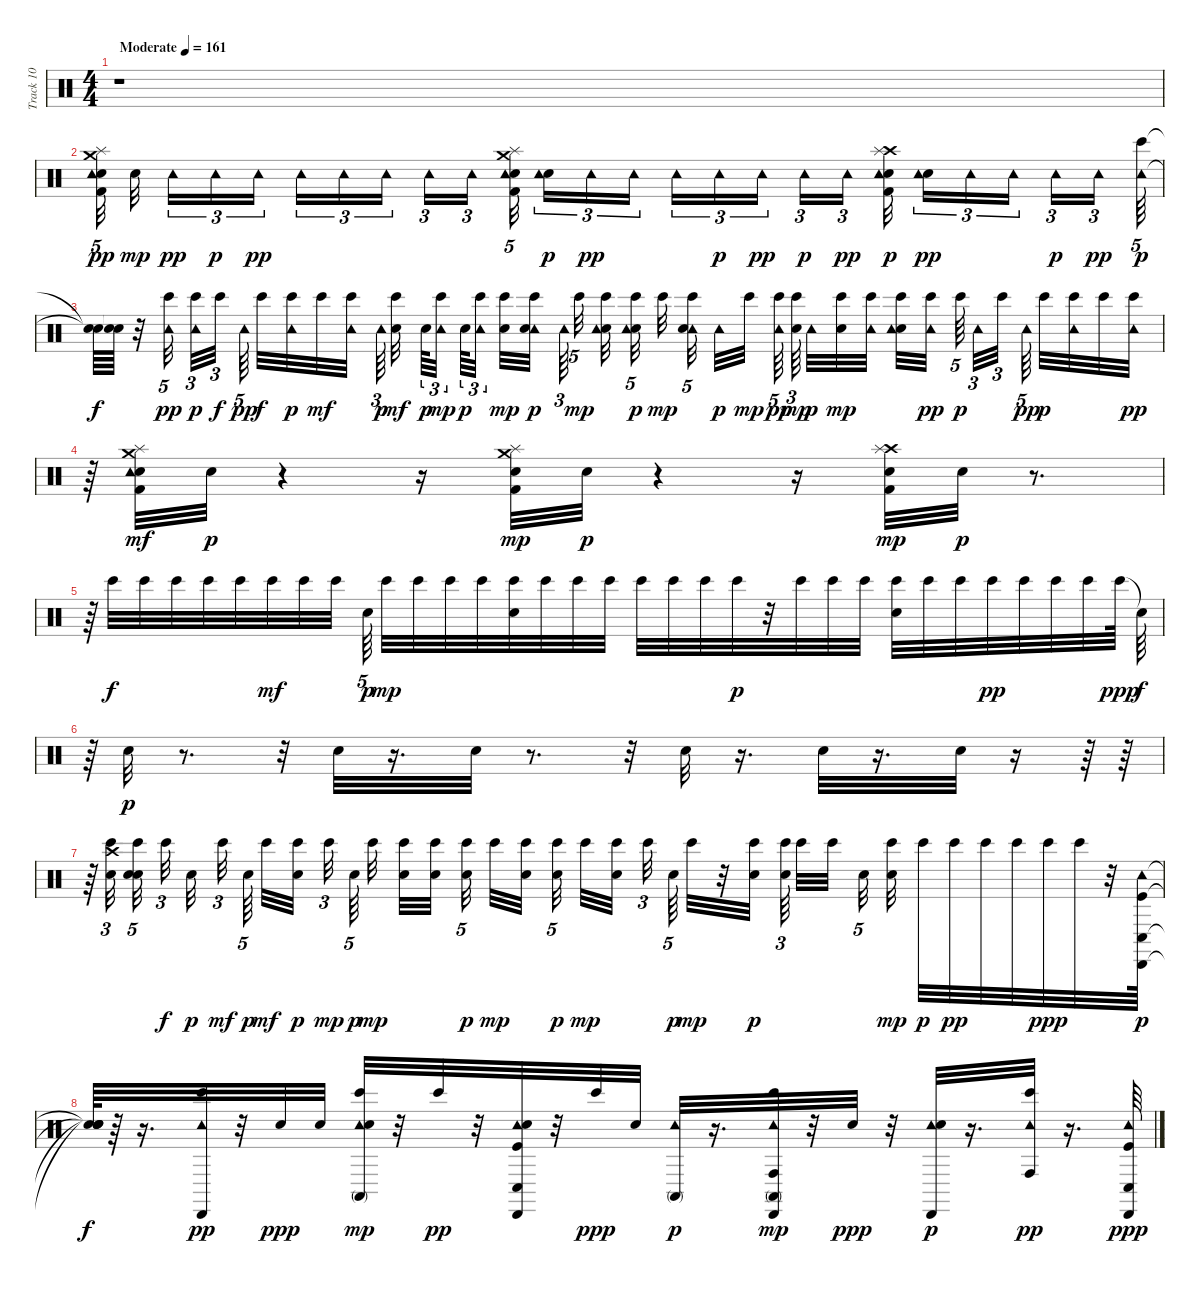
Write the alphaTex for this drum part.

\track ("Track 10" "Track 10") {instrument percussion}
\staff {score}
\articulation defaults
\ts (4 4)
\tempo (161 "Moderate")
\clef neutral
\ks c
r.1{dy pp} |
("Splash (hit)" "Kick (hit) 2" "Electric Snare (hit)" "Crash medium (hit)" "Tambourine (hit)").32{tu (5 4) beam splitsecondary} "Electric Snare (hit)".32{dy mp beam splitsecondary} "Tambourine (hit)".16{tu (3 2) dy pp} "Tambourine (hit)".16{tu (3 2) dy p} "Tambourine (hit)".16{tu (3 2) dy pp beam splitsecondary} "Tambourine (hit)".16{tu (3 2)} "Tambourine (hit)".16{tu (3 2)} "Tambourine (hit)".16{tu (3 2) beam splitsecondary} "Tambourine (hit)".16{tu (3 2)} "Tambourine (hit)".16{tu (3 2)} ("Crash medium (hit)" "Electric Snare (hit)" "Splash (hit)" "Kick (hit) 2" "Tambourine (hit)").32{tu (5 4)} ("Electric Snare (hit)" "Tambourine (hit)").16{tu (3 2) dy p} "Tambourine (hit)".16{tu (3 2) dy pp} "Tambourine (hit)".16{tu (3 2)} "Tambourine (hit)".16{tu (3 2)} "Tambourine (hit)".16{tu (3 2) dy p} "Tambourine (hit)".16{tu (3 2) dy pp beam splitsecondary} "Tambourine (hit)".16{tu (3 2) dy p} "Tambourine (hit)".16{tu (3 2) dy pp beam splitsecondary} ("Crash high (hit)" "Electric Snare (hit)" "Kick (hit) 2" "Splash (hit)" "Tambourine (hit)").32{dy p} ("Electric Snare (hit)" "Tambourine (hit)").16{tu (3 2) dy pp} "Tambourine (hit)".16{tu (3 2)} "Tambourine (hit)".16{tu (3 2) beam splitsecondary} "Tambourine (hit)".16{tu (3 2) dy p} "Tambourine (hit)".16{tu (3 2) dy pp} ("Bongo High (hit)" "Tambourine (hit)").64{tu (5 4) dy p} |
("Snare (hit)"{t} "Snare (hit)"{t}).64{dy f} ("Snare (hit)"{t} "Snare (hit)"{t}).64 r.32 ("Bongo High (hit)" "Tambourine (hit)").32{tu (5 4) dy pp} ("Bongo High (hit)" "Tambourine (hit)").32{tu (3 2) dy p} "Bongo High (hit)".32{tu (3 2) dy f} "Tambourine (hit)".64{tu (5 4) dy pp beam splitsecondary} "Bongo High (hit)".32{dy f} ("Tambourine (hit)" "Bongo High (hit)").32{dy p} "Bongo High (hit)".32{dy mf} ("Tambourine (hit)" "Bongo High (hit)").32 "Tambourine (hit)".64{tu (3 2) dy p beam splitsecondary} ("Electric Snare (hit)" "Bongo High (hit)").32{dy mf beam splitsecondary} "Electric Snare (hit)".64{tu (3 2) dy p} ("Tambourine (hit)" "Bongo High (hit)").32{tu (3 2) dy mp beam splitsecondary} "Electric Snare (hit)".64{tu (3 2) dy p} ("Bongo High (hit)" "Tambourine (hit)").32{tu (3 2) beam splitsecondary} ("Electric Snare (hit)" "Bongo High (hit)").32{dy mp} ("Tambourine (hit)" "Bongo High (hit)" "Electric Snare (hit)").32{dy p beam splitsecondary} "Tambourine (hit)".64{tu (3 2)} "Bongo High (hit)".32{tu (5 4) dy mp beam splitsecondary} ("Electric Snare (hit)" "Tambourine (hit)" "Bongo High (hit)").32 ("Electric Snare (hit)" "Bongo High (hit)" "Tambourine (hit)").32{tu (5 4) dy p beam splitsecondary} "Bongo High (hit)".32{dy mp beam splitsecondary} ("Tambourine (hit)" "Electric Snare (hit)" "Bongo High (hit)").32{tu (5 4) beam splitsecondary} "Tambourine (hit)".32{dy p} "Bongo High (hit)".32{dy mp beam splitsecondary} ("Bongo High (hit)" "Tambourine (hit)").64{tu (5 4) dy pp} ("Electric Snare (hit)" "Bongo High (hit)").64{tu (3 2) dy mp beam splitsecondary} "Tambourine (hit)".32{dy p} ("Electric Snare (hit)" "Bongo High (hit)").32{dy mp} ("Tambourine (hit)" "Bongo High (hit)").32 ("Electric Snare (hit)" "Tambourine (hit)" "Bongo High (hit)").32 ("Bongo High (hit)" "Tambourine (hit)").32{dy pp beam splitsecondary} "Bongo High (hit)".64{tu (5 4) dy p} "Tambourine (hit)".32{tu (3 2)} "Bongo High (hit)".32{tu (3 2)} "Tambourine (hit)".64{tu (5 4) dy pp beam splitsecondary} "Bongo High (hit)".32{dy p} ("Tambourine (hit)" "Bongo High (hit)").32 "Bongo High (hit)".32 ("Tambourine (hit)" "Bongo High (hit)").32{dy pp} |
r.64 ("Crash medium (hit)" "Electric Snare (hit)" "Kick (hit) 2" "Tambourine (hit)" "Splash (hit)").32{dy mf} "Electric Snare (hit)".32{dy p} r.4 r.16 ("Crash medium (hit)" "Splash (hit)" "Kick (hit) 2" "Electric Snare (hit)").32{dy mp} "Electric Snare (hit)".32{dy p} r.4 r.16 ("Crash high (hit)" "Splash (hit)" "Electric Snare (hit)" "Kick (hit) 2").32{dy mp} "Electric Snare (hit)".32{dy p} r.8{d} |
r.64 "Bongo High (hit)".32{dy f} "Bongo High (hit)".32 "Bongo High (hit)".32 "Bongo High (hit)".32 "Bongo High (hit)".32 "Bongo High (hit)".32{dy mf} "Bongo High (hit)".32 "Bongo High (hit)".32 "Electric Snare (hit)".64{tu (5 4) dy p beam splitsecondary} "Bongo High (hit)".32{dy mp} "Bongo High (hit)".32 "Bongo High (hit)".32 "Bongo High (hit)".32 ("Electric Snare (hit)" "Bongo High (hit)").32 "Bongo High (hit)".32 "Bongo High (hit)".32 "Bongo High (hit)".32 "Bongo High (hit)".32 "Bongo High (hit)".32 "Bongo High (hit)".32 "Bongo High (hit)".32{dy p} r.32 "Bongo High (hit)".32 "Bongo High (hit)".32 "Bongo High (hit)".32 ("Electric Snare (hit)" "Bongo High (hit)").32 "Bongo High (hit)".32 "Bongo High (hit)".32 "Bongo High (hit)".32{dy pp} "Bongo High (hit)".32 "Bongo High (hit)".32 "Bongo High (hit)".32 "Bongo High (hit)".64{dy ppp} "Snare (hit)"{t}.64{dy f} |
r.64 "Electric Snare (hit)".32{dy p} r.8{d} r.32 "Electric Snare (hit)".32 r.16{d} "Electric Snare (hit)".32 r.8{d} r.32 "Electric Snare (hit)".32 r.16{d} "Electric Snare (hit)".32 r.16{d} "Electric Snare (hit)".32 r.16 r.64 r.64 |
r.64 ("Crash high (hit)" "Electric Snare (hit)" "Bongo High (hit)").32{tu (3 2)} ("Electric Snare (hit)" "Bongo High (hit)" "Electric Snare (hit)").32{tu (5 4)} "Bongo High (hit)".32{tu (3 2) dy f beam splitsecondary} "Electric Snare (hit)".32{dy p beam splitsecondary} "Bongo High (hit)".32{tu (3 2) dy mf} "Electric Snare (hit)".64{tu (5 4) dy p beam splitsecondary} "Bongo High (hit)".32{dy mf} ("Bongo High (hit)" "Electric Snare (hit)").32{dy p beam splitsecondary} "Bongo High (hit)".32{tu (3 2) dy mp} "Electric Snare (hit)".64{tu (5 4) dy p beam splitsecondary} "Bongo High (hit)".32{dy mp} ("Electric Snare (hit)" "Bongo High (hit)").32 ("Electric Snare (hit)" "Bongo High (hit)").32{beam splitsecondary} ("Bongo High (hit)" "Electric Snare (hit)").32{tu (5 4) dy p beam splitsecondary} "Bongo High (hit)".32{dy mp} ("Electric Snare (hit)" "Bongo High (hit)").32{beam splitsecondary} ("Bongo High (hit)" "Electric Snare (hit)").32{tu (5 4) dy p beam splitsecondary} "Bongo High (hit)".32{dy mp} ("Electric Snare (hit)" "Bongo High (hit)").32 "Bongo High (hit)".32{tu (3 2)} "Electric Snare (hit)".64{tu (5 4) dy p beam splitsecondary} "Bongo High (hit)".32{dy mp} r.32 ("Bongo High (hit)" "Electric Snare (hit)").32{dy p beam splitsecondary} ("Bongo High (hit)" "Electric Snare (hit)").64{tu (3 2) beam splitsecondary} "Bongo High (hit)".32 "Bongo High (hit)".32{beam splitsecondary} "Electric Snare (hit)".32{tu (5 4)} ("Bongo High (hit)" "Electric Snare (hit)").32{dy mp} "Bongo High (hit)".32{dy p} "Bongo High (hit)".32{dy pp} "Bongo High (hit)".32 "Bongo High (hit)".32 "Bongo High (hit)".32{dy ppp} "Bongo High (hit)".32 r.32 ("Cabasa (hit)" "Conga low (hit)" "Tambourine (hit)" "Kick (hit)").64{dy p} |
("Snare (hit)"{t} "Snare (hit)"{t} "Snare (hit)"{t} "Snare (hit)"{t}).64{dy f} r.64 r.16{d} ("Tambourine (hit)" "Cabasa (hit)" "Bongo High (hit)").32{dy pp} r.32 "Electric Snare (hit)".32{dy ppp} "Electric Snare (hit)".32 ("Tambourine (hit)" "Bongo High (hit)" "Conga high (mute)" "Electric Snare (hit)").32{dy mp} r.32 "Bongo High (hit)".32{dy pp} r.32 ("Tambourine (hit)" "Conga low (hit)" "Cabasa (hit)" "Kick (hit)" "Electric Snare (hit)").32 r.32 "Bongo High (hit)".32{dy ppp} "Electric Snare (hit)".32 ("Tambourine (hit)" "Conga high (mute)").32{dy p} r.16{d} ("Tambourine (hit)" "Cabasa (hit)" "Bongo High (hit)" "Conga high (mute)" "Conga high (hit)").32{dy mp} r.32 "Electric Snare (hit)".32{dy ppp} r.32 ("Tambourine (hit)" "Cabasa (hit)" "Electric Snare (hit)").32{dy p} r.16{d} ("Tambourine (hit)" "Conga high (hit)" "Bongo High (hit)").32{dy pp} r.16{d} ("Kick (hit)" "Tambourine (hit)" "Cabasa (hit)" "Conga low (hit)").64{dy ppp}
